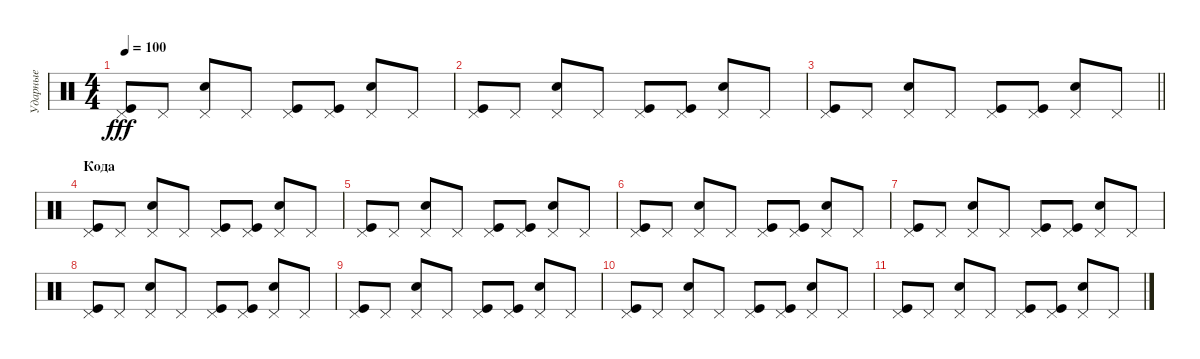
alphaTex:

\track ("Ударные" "Ударные") {instrument percussion}
\staff {score}
\articulation defaults
\ts (4 4)
\tempo 100
\clef neutral
\ks c
("Pedal Hi-Hat (hit)" "Kick (hit)").8{dy fff} "Pedal Hi-Hat (hit)".8 ("Pedal Hi-Hat (hit)" "Snare (hit) 2").8 "Pedal Hi-Hat (hit)".8 ("Pedal Hi-Hat (hit)" "Kick (hit)").8 ("Pedal Hi-Hat (hit)" "Kick (hit)").8 ("Pedal Hi-Hat (hit)" "Snare (hit) 2").8 "Pedal Hi-Hat (hit)".8 |
("Pedal Hi-Hat (hit)" "Kick (hit)").8 "Pedal Hi-Hat (hit)".8 ("Pedal Hi-Hat (hit)" "Snare (hit) 2").8 "Pedal Hi-Hat (hit)".8 ("Pedal Hi-Hat (hit)" "Kick (hit)").8 ("Pedal Hi-Hat (hit)" "Kick (hit)").8 ("Pedal Hi-Hat (hit)" "Snare (hit) 2").8 "Pedal Hi-Hat (hit)".8 |
\barLineRight lightlight
("Pedal Hi-Hat (hit)" "Kick (hit)").8 "Pedal Hi-Hat (hit)".8 ("Pedal Hi-Hat (hit)" "Snare (hit) 2").8 "Pedal Hi-Hat (hit)".8 ("Pedal Hi-Hat (hit)" "Kick (hit)").8 ("Pedal Hi-Hat (hit)" "Kick (hit)").8 ("Pedal Hi-Hat (hit)" "Snare (hit) 2").8 "Pedal Hi-Hat (hit)".8 |
\section ("" "Кода")
("Pedal Hi-Hat (hit)" "Kick (hit)").8 "Pedal Hi-Hat (hit)".8 ("Pedal Hi-Hat (hit)" "Snare (hit) 2").8 "Pedal Hi-Hat (hit)".8 ("Pedal Hi-Hat (hit)" "Kick (hit)").8 ("Pedal Hi-Hat (hit)" "Kick (hit)").8 ("Pedal Hi-Hat (hit)" "Snare (hit) 2").8 "Pedal Hi-Hat (hit)".8 |
("Pedal Hi-Hat (hit)" "Kick (hit)").8 "Pedal Hi-Hat (hit)".8 ("Pedal Hi-Hat (hit)" "Snare (hit) 2").8 "Pedal Hi-Hat (hit)".8 ("Pedal Hi-Hat (hit)" "Kick (hit)").8 ("Pedal Hi-Hat (hit)" "Kick (hit)").8 ("Pedal Hi-Hat (hit)" "Snare (hit) 2").8 "Pedal Hi-Hat (hit)".8 |
("Pedal Hi-Hat (hit)" "Kick (hit)").8 "Pedal Hi-Hat (hit)".8 ("Pedal Hi-Hat (hit)" "Snare (hit) 2").8 "Pedal Hi-Hat (hit)".8 ("Pedal Hi-Hat (hit)" "Kick (hit)").8 ("Pedal Hi-Hat (hit)" "Kick (hit)").8 ("Pedal Hi-Hat (hit)" "Snare (hit) 2").8 "Pedal Hi-Hat (hit)".8 |
("Pedal Hi-Hat (hit)" "Kick (hit)").8 "Pedal Hi-Hat (hit)".8 ("Pedal Hi-Hat (hit)" "Snare (hit) 2").8 "Pedal Hi-Hat (hit)".8 ("Pedal Hi-Hat (hit)" "Kick (hit)").8 ("Pedal Hi-Hat (hit)" "Kick (hit)").8 ("Pedal Hi-Hat (hit)" "Snare (hit) 2").8 "Pedal Hi-Hat (hit)".8 |
("Pedal Hi-Hat (hit)" "Kick (hit)").8 "Pedal Hi-Hat (hit)".8 ("Pedal Hi-Hat (hit)" "Snare (hit) 2").8 "Pedal Hi-Hat (hit)".8 ("Pedal Hi-Hat (hit)" "Kick (hit)").8 ("Pedal Hi-Hat (hit)" "Kick (hit)").8 ("Pedal Hi-Hat (hit)" "Snare (hit) 2").8 "Pedal Hi-Hat (hit)".8 |
("Pedal Hi-Hat (hit)" "Kick (hit)").8 "Pedal Hi-Hat (hit)".8 ("Pedal Hi-Hat (hit)" "Snare (hit) 2").8 "Pedal Hi-Hat (hit)".8 ("Pedal Hi-Hat (hit)" "Kick (hit)").8 ("Pedal Hi-Hat (hit)" "Kick (hit)").8 ("Pedal Hi-Hat (hit)" "Snare (hit) 2").8 "Pedal Hi-Hat (hit)".8 |
("Pedal Hi-Hat (hit)" "Kick (hit)").8 "Pedal Hi-Hat (hit)".8 ("Pedal Hi-Hat (hit)" "Snare (hit) 2").8 "Pedal Hi-Hat (hit)".8 ("Pedal Hi-Hat (hit)" "Kick (hit)").8 ("Pedal Hi-Hat (hit)" "Kick (hit)").8 ("Pedal Hi-Hat (hit)" "Snare (hit) 2").8 "Pedal Hi-Hat (hit)".8 |
("Pedal Hi-Hat (hit)" "Kick (hit)").8 "Pedal Hi-Hat (hit)".8 ("Pedal Hi-Hat (hit)" "Snare (hit) 2").8 "Pedal Hi-Hat (hit)".8 ("Pedal Hi-Hat (hit)" "Kick (hit)").8 ("Pedal Hi-Hat (hit)" "Kick (hit)").8 ("Pedal Hi-Hat (hit)" "Snare (hit) 2").8 "Pedal Hi-Hat (hit)".8
